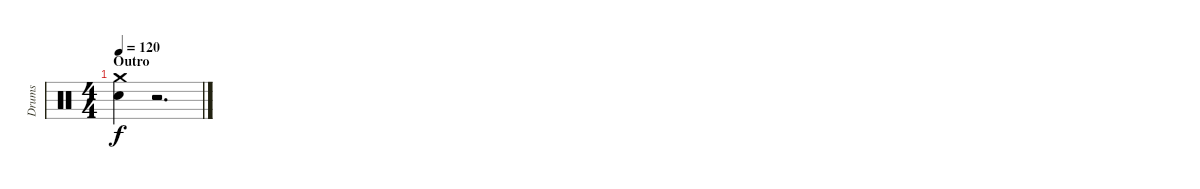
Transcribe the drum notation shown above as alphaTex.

\track ("Drums" "Drums") {instrument percussion}
\staff {score}
\articulation defaults
\ts (4 4)
\section ("" "Outro")
\tempo 120
\clef neutral
\ks c
("Crash medium (hit)" "Snare (hit) 2").4{dy f} r.2{d}
